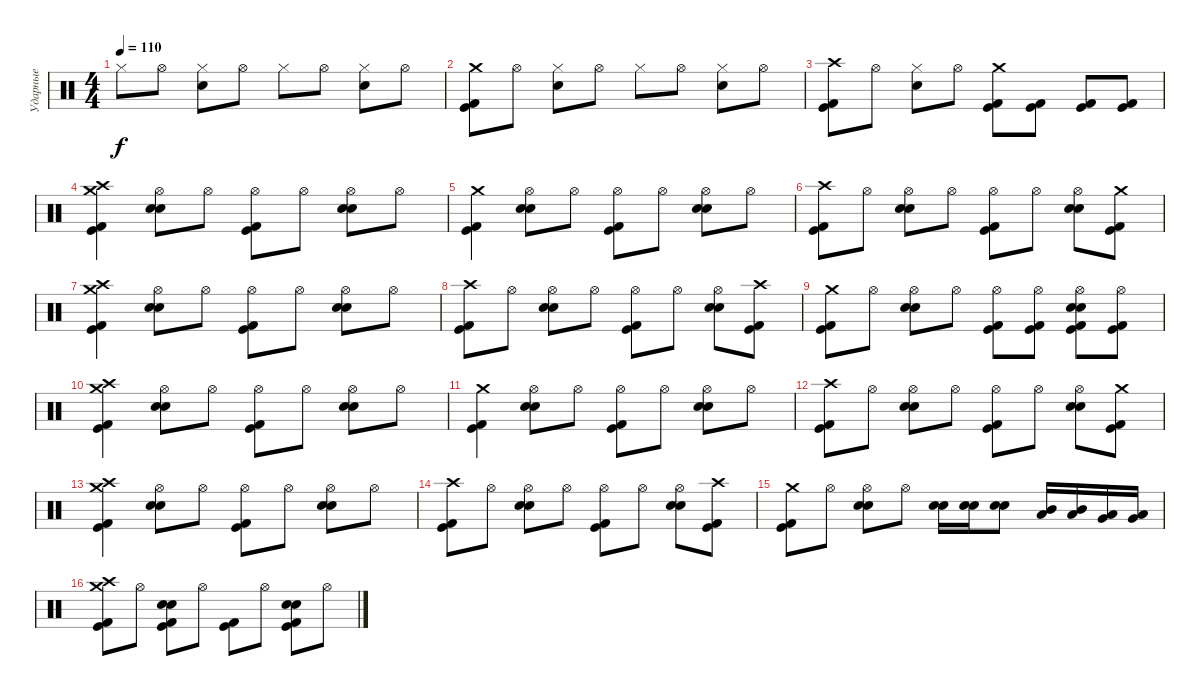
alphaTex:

\track ("Ударные" "Ударные") {instrument percussion}
\staff {score}
\articulation defaults
\ts (4 4)
\tempo 110
\clef neutral
\ks c "Hi-Hat (closed)".8{dy f} "Hi-Hat (open)".8
("Hi-Hat (closed)" "Electric Snare (hit)").8 "Hi-Hat (open)".8 "Hi-Hat (closed)".8 "Hi-Hat (open)".8 ("Hi-Hat (closed)" "Electric Snare (hit)").8 "Hi-Hat (open)".8 |
("Crash medium (hit)" "Kick (hit) 2" "Kick (hit)").8 "Hi-Hat (open)".8 ("Hi-Hat (closed)" "Electric Snare (hit)").8 "Hi-Hat (open)".8 "Hi-Hat (closed)".8 "Hi-Hat (open)".8 ("Hi-Hat (closed)" "Electric Snare (hit)").8 "Hi-Hat (open)".8 |
("Crash high (hit)" "Kick (hit) 2" "Kick (hit)").8 "Hi-Hat (open)".8 ("Hi-Hat (closed)" "Electric Snare (hit)").8 "Hi-Hat (open)".8 ("Crash medium (hit)" "Kick (hit) 2" "Kick (hit)").8 ("Kick (hit) 2" "Kick (hit)").8 ("Kick (hit) 2" "Kick (hit)").8 ("Kick (hit) 2" "Kick (hit)").8 |
("Crash high (hit)" "Kick (hit) 2" "Kick (hit)" "Crash medium (hit)").4 ("Hi-Hat (open)" "Snare (hit) 2" "Electric Snare (hit)").8 "Hi-Hat (open)".8 ("Hi-Hat (open)" "Kick (hit) 2" "Kick (hit)").8 "Hi-Hat (open)".8 ("Hi-Hat (open)" "Snare (hit) 2" "Electric Snare (hit)").8 "Hi-Hat (open)".8 |
("Crash medium (hit)" "Kick (hit) 2" "Kick (hit)").4 ("Hi-Hat (open)" "Snare (hit) 2" "Electric Snare (hit)").8 "Hi-Hat (open)".8 ("Hi-Hat (open)" "Kick (hit) 2" "Kick (hit)").8 "Hi-Hat (open)".8 ("Hi-Hat (open)" "Snare (hit) 2" "Electric Snare (hit)").8 "Hi-Hat (open)".8 |
("Crash high (hit)" "Kick (hit) 2" "Kick (hit)").8 "Hi-Hat (open)".8 ("Hi-Hat (open)" "Snare (hit) 2" "Electric Snare (hit)").8 "Hi-Hat (open)".8 ("Hi-Hat (open)" "Kick (hit) 2" "Kick (hit)").8 "Hi-Hat (open)".8 ("Hi-Hat (open)" "Snare (hit) 2" "Electric Snare (hit)").8 ("Crash medium (hit)" "Kick (hit)" "Kick (hit) 2").8 |
("Crash high (hit)" "Kick (hit) 2" "Kick (hit)" "Crash medium (hit)").4 ("Hi-Hat (open)" "Snare (hit) 2" "Electric Snare (hit)").8 "Hi-Hat (open)".8 ("Hi-Hat (open)" "Kick (hit) 2" "Kick (hit)").8 "Hi-Hat (open)".8 ("Hi-Hat (open)" "Snare (hit) 2" "Electric Snare (hit)").8 "Hi-Hat (open)".8 |
("Crash high (hit)" "Kick (hit) 2" "Kick (hit)").8 "Hi-Hat (open)".8 ("Hi-Hat (open)" "Snare (hit) 2" "Electric Snare (hit)").8 "Hi-Hat (open)".8 ("Hi-Hat (open)" "Kick (hit) 2" "Kick (hit)").8 "Hi-Hat (open)".8 ("Hi-Hat (open)" "Snare (hit) 2" "Electric Snare (hit)").8 ("Crash high (hit)" "Kick (hit) 2" "Kick (hit)").8 |
("Crash medium (hit)" "Kick (hit) 2" "Kick (hit)").8 "Hi-Hat (open)".8 ("Hi-Hat (open)" "Snare (hit) 2" "Electric Snare (hit)").8 "Hi-Hat (open)".8 ("Hi-Hat (open)" "Kick (hit) 2" "Kick (hit)").8 ("Hi-Hat (open)" "Kick (hit)" "Kick (hit) 2").8 ("Hi-Hat (open)" "Snare (hit) 2" "Electric Snare (hit)" "Kick (hit)" "Kick (hit) 2").8 ("Hi-Hat (open)" "Kick (hit)" "Kick (hit) 2").8 |
("Crash high (hit)" "Kick (hit) 2" "Kick (hit)" "Crash medium (hit)").4 ("Hi-Hat (open)" "Snare (hit) 2" "Electric Snare (hit)").8 "Hi-Hat (open)".8 ("Hi-Hat (open)" "Kick (hit) 2" "Kick (hit)").8 "Hi-Hat (open)".8 ("Hi-Hat (open)" "Snare (hit) 2" "Electric Snare (hit)").8 "Hi-Hat (open)".8 |
("Crash medium (hit)" "Kick (hit) 2" "Kick (hit)").4 ("Hi-Hat (open)" "Snare (hit) 2" "Electric Snare (hit)").8 "Hi-Hat (open)".8 ("Hi-Hat (open)" "Kick (hit) 2" "Kick (hit)").8 "Hi-Hat (open)".8 ("Hi-Hat (open)" "Snare (hit) 2" "Electric Snare (hit)").8 "Hi-Hat (open)".8 |
("Crash high (hit)" "Kick (hit) 2" "Kick (hit)").8 "Hi-Hat (open)".8 ("Hi-Hat (open)" "Snare (hit) 2" "Electric Snare (hit)").8 "Hi-Hat (open)".8 ("Hi-Hat (open)" "Kick (hit) 2" "Kick (hit)").8 "Hi-Hat (open)".8 ("Hi-Hat (open)" "Snare (hit) 2" "Electric Snare (hit)").8 ("Crash medium (hit)" "Kick (hit)" "Kick (hit) 2").8 |
("Crash high (hit)" "Kick (hit) 2" "Kick (hit)" "Crash medium (hit)").4 ("Hi-Hat (open)" "Snare (hit) 2" "Electric Snare (hit)").8 "Hi-Hat (open)".8 ("Hi-Hat (open)" "Kick (hit) 2" "Kick (hit)").8 "Hi-Hat (open)".8 ("Hi-Hat (open)" "Snare (hit) 2" "Electric Snare (hit)").8 "Hi-Hat (open)".8 |
("Crash high (hit)" "Kick (hit) 2" "Kick (hit)").8 "Hi-Hat (open)".8 ("Hi-Hat (open)" "Snare (hit) 2" "Electric Snare (hit)").8 "Hi-Hat (open)".8 ("Hi-Hat (open)" "Kick (hit) 2" "Kick (hit)").8 "Hi-Hat (open)".8 ("Hi-Hat (open)" "Snare (hit) 2" "Electric Snare (hit)").8 ("Crash high (hit)" "Kick (hit) 2" "Kick (hit)").8 |
("Crash medium (hit)" "Kick (hit) 2" "Kick (hit)").8 "Hi-Hat (open)".8 ("Hi-Hat (open)" "Snare (hit) 2" "Electric Snare (hit)").8 "Hi-Hat (open)".8 ("Snare (hit) 2" "Electric Snare (hit)").16 ("Snare (hit) 2" "Electric Snare (hit)").16 ("Snare (hit) 2" "Electric Snare (hit)").8 ("Mid Tom (hit)" "Low Tom (hit)").16 ("Mid Tom (hit)" "Low Tom (hit)").16 ("Very Low Tom (hit)" "Low Floor Tom (hit)").16 ("Very Low Tom (hit)" "Low Floor Tom (hit)").16 |
("Crash high (hit)" "Kick (hit) 2" "Crash medium (hit)" "Kick (hit)").8 "Hi-Hat (open)".8 ("Snare (hit) 2" "Electric Snare (hit)" "Kick (hit)" "Kick (hit) 2").8 "Hi-Hat (open)".8 ("Kick (hit) 2" "Kick (hit)").8 "Hi-Hat (open)".8 ("Snare (hit) 2" "Electric Snare (hit)" "Kick (hit)" "Kick (hit) 2").8 "Hi-Hat (open)".8
